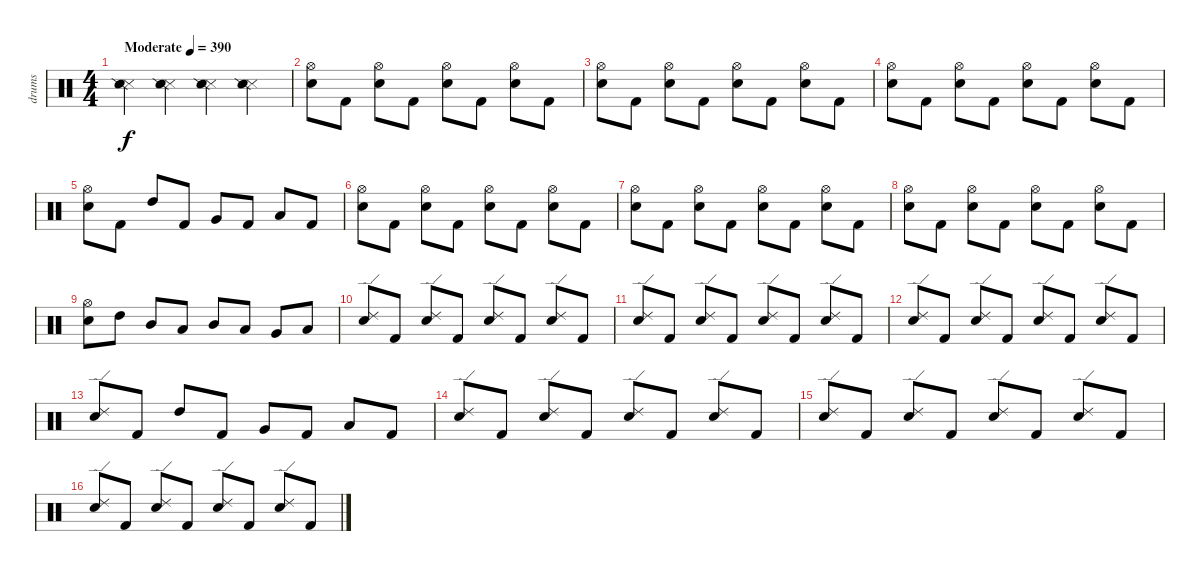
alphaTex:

\track ("drums" "drums") {instrument percussion}
\staff {score}
\articulation defaults
\ts (4 4)
\tempo (390 "Moderate")
\clef neutral
\ks c
("Metronome (hit)" "Snare (side stick) 2").4{dy f} ("Metronome (hit)" "Snare (side stick) 2").4 ("Metronome (hit)" "Snare (side stick) 2").4 ("Metronome (hit)" "Snare (side stick) 2").4 |
("Hi-Hat (open)" "Electric Snare (hit)").8 "Kick (hit) 2".8 ("Hi-Hat (open)" "Electric Snare (hit)").8 "Kick (hit) 2".8 ("Hi-Hat (open)" "Electric Snare (hit)").8 "Kick (hit) 2".8 ("Hi-Hat (open)" "Electric Snare (hit)").8 "Kick (hit) 2".8 |
("Hi-Hat (open)" "Electric Snare (hit)").8 "Kick (hit) 2".8 ("Hi-Hat (open)" "Electric Snare (hit)").8 "Kick (hit) 2".8 ("Hi-Hat (open)" "Electric Snare (hit)").8 "Kick (hit) 2".8 ("Hi-Hat (open)" "Electric Snare (hit)").8 "Kick (hit) 2".8 |
("Hi-Hat (open)" "Electric Snare (hit)").8 "Kick (hit) 2".8 ("Hi-Hat (open)" "Electric Snare (hit)").8 "Kick (hit) 2".8 ("Hi-Hat (open)" "Electric Snare (hit)").8 "Kick (hit) 2".8 ("Hi-Hat (open)" "Electric Snare (hit)").8 "Kick (hit) 2".8 |
("Hi-Hat (open)" "Electric Snare (hit)").8 "Kick (hit) 2".8 "High Tom (hit)".8 "Kick (hit) 2".8 "Very Low Tom (hit)".8 "Kick (hit) 2".8 "Low Floor Tom (hit)".8 "Kick (hit) 2".8 |
("Hi-Hat (open)" "Electric Snare (hit)").8 "Kick (hit) 2".8 ("Hi-Hat (open)" "Electric Snare (hit)").8 "Kick (hit) 2".8 ("Hi-Hat (open)" "Electric Snare (hit)").8 "Kick (hit) 2".8 ("Hi-Hat (open)" "Electric Snare (hit)").8 "Kick (hit) 2".8 |
("Hi-Hat (open)" "Electric Snare (hit)").8 "Kick (hit) 2".8 ("Hi-Hat (open)" "Electric Snare (hit)").8 "Kick (hit) 2".8 ("Hi-Hat (open)" "Electric Snare (hit)").8 "Kick (hit) 2".8 ("Hi-Hat (open)" "Electric Snare (hit)").8 "Kick (hit) 2".8 |
("Hi-Hat (open)" "Electric Snare (hit)").8 "Kick (hit) 2".8 ("Hi-Hat (open)" "Electric Snare (hit)").8 "Kick (hit) 2".8 ("Hi-Hat (open)" "Electric Snare (hit)").8 "Kick (hit) 2".8 ("Hi-Hat (open)" "Electric Snare (hit)").8 "Kick (hit) 2".8 |
("Hi-Hat (open)" "Electric Snare (hit)").8 "High Tom (hit)".8 "Mid Tom (hit)".8 "Low Tom (hit)".8 "Mid Tom (hit)".8 "Low Tom (hit)".8 "Very Low Tom (hit)".8 "Low Floor Tom (hit)".8 |
("Ride (edge) 2" "Electric Snare (hit)").8 "Kick (hit) 2".8 ("Ride (edge) 2" "Electric Snare (hit)").8 "Kick (hit) 2".8 ("Ride (edge) 2" "Electric Snare (hit)").8 "Kick (hit) 2".8 ("Ride (edge) 2" "Electric Snare (hit)").8 "Kick (hit) 2".8 |
("Ride (edge) 2" "Electric Snare (hit)").8 "Kick (hit) 2".8 ("Ride (edge) 2" "Electric Snare (hit)").8 "Kick (hit) 2".8 ("Ride (edge) 2" "Electric Snare (hit)").8 "Kick (hit) 2".8 ("Ride (edge) 2" "Electric Snare (hit)").8 "Kick (hit) 2".8 |
("Ride (edge) 2" "Electric Snare (hit)").8 "Kick (hit) 2".8 ("Ride (edge) 2" "Electric Snare (hit)").8 "Kick (hit) 2".8 ("Ride (edge) 2" "Electric Snare (hit)").8 "Kick (hit) 2".8 ("Ride (edge) 2" "Electric Snare (hit)").8 "Kick (hit) 2".8 |
("Ride (edge) 2" "Electric Snare (hit)").8 "Kick (hit) 2".8 "High Tom (hit)".8 "Kick (hit) 2".8 "Very Low Tom (hit)".8 "Kick (hit) 2".8 "Low Floor Tom (hit)".8 "Kick (hit) 2".8 |
("Ride (edge) 2" "Electric Snare (hit)").8 "Kick (hit) 2".8 ("Ride (edge) 2" "Electric Snare (hit)").8 "Kick (hit) 2".8 ("Ride (edge) 2" "Electric Snare (hit)").8 "Kick (hit) 2".8 ("Ride (edge) 2" "Electric Snare (hit)").8 "Kick (hit) 2".8 |
("Ride (edge) 2" "Electric Snare (hit)").8 "Kick (hit) 2".8 ("Ride (edge) 2" "Electric Snare (hit)").8 "Kick (hit) 2".8 ("Ride (edge) 2" "Electric Snare (hit)").8 "Kick (hit) 2".8 ("Ride (edge) 2" "Electric Snare (hit)").8 "Kick (hit) 2".8 |
("Ride (edge) 2" "Electric Snare (hit)").8 "Kick (hit) 2".8 ("Ride (edge) 2" "Electric Snare (hit)").8 "Kick (hit) 2".8 ("Ride (edge) 2" "Electric Snare (hit)").8 "Kick (hit) 2".8 ("Ride (edge) 2" "Electric Snare (hit)").8 "Kick (hit) 2".8
